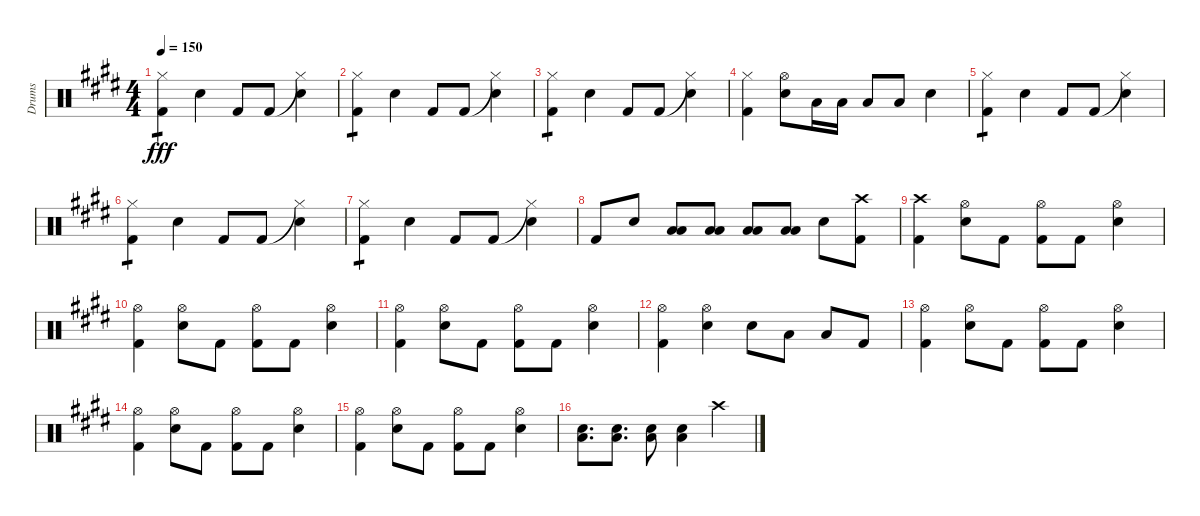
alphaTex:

\track ("Drums" "Drums") {instrument percussion}
\staff {score}
\articulation defaults
\ts (4 4)
\tempo 150
\clef neutral
\ks e
("Hi-Hat (closed)" "Kick (hit) 2").4{tp 1 dy fff} "Snare (hit) 2".4 "Kick (hit) 2".8 "Kick (hit) 2".8 ("Hi-Hat (closed)"{t} "Snare (hit) 2").4 |
("Hi-Hat (closed)" "Kick (hit) 2").4{tp 1} "Snare (hit) 2".4 "Kick (hit) 2".8 "Kick (hit) 2".8 ("Hi-Hat (closed)"{t} "Snare (hit) 2").4 |
("Hi-Hat (closed)" "Kick (hit) 2").4{tp 1} "Snare (hit) 2".4 "Kick (hit) 2".8 "Kick (hit) 2".8 ("Hi-Hat (closed)"{t} "Snare (hit) 2").4 |
("Hi-Hat (closed)" "Kick (hit) 2").4 ("Hi-Hat (open)" "Snare (hit) 2").8 "Low Floor Tom (hit)".16 "Low Floor Tom (hit)".16 "Low Floor Tom (hit)".8 "Low Floor Tom (hit)".8 "Snare (hit) 2".4 |
("Hi-Hat (closed)" "Kick (hit) 2").4{tp 1} "Snare (hit) 2".4 "Kick (hit) 2".8 "Kick (hit) 2".8 ("Hi-Hat (closed)"{t} "Snare (hit) 2").4 |
("Hi-Hat (closed)" "Kick (hit) 2").4{tp 1} "Snare (hit) 2".4 "Kick (hit) 2".8 "Kick (hit) 2".8 ("Hi-Hat (closed)"{t} "Snare (hit) 2").4 |
("Hi-Hat (closed)" "Kick (hit) 2").4{tp 1} "Snare (hit) 2".4 "Kick (hit) 2".8 "Kick (hit) 2".8 ("Hi-Hat (closed)"{t} "Snare (hit) 2").4 |
"Kick (hit) 2".8 "Snare (hit) 2".8 ("Low Floor Tom (hit)" "Low Tom (hit)").8 ("Low Floor Tom (hit)" "Low Tom (hit)").8 ("Low Floor Tom (hit)" "Low Tom (hit)").8 ("Low Floor Tom (hit)" "Low Tom (hit)").8 "Snare (hit) 2".8 ("Crash high (hit)" "Kick (hit) 2").8 |
("Crash high (hit)" "Kick (hit) 2").4 ("Hi-Hat (open)" "Snare (hit) 2").8 "Kick (hit) 2".8 ("Hi-Hat (open)" "Kick (hit) 2").8 "Kick (hit) 2".8 ("Hi-Hat (open)" "Snare (hit) 2").4 |
("Hi-Hat (open)" "Kick (hit) 2").4 ("Hi-Hat (open)" "Snare (hit) 2").8 "Kick (hit) 2".8 ("Hi-Hat (open)" "Kick (hit) 2").8 "Kick (hit) 2".8 ("Hi-Hat (open)" "Snare (hit) 2").4 |
("Hi-Hat (open)" "Kick (hit) 2").4 ("Hi-Hat (open)" "Snare (hit) 2").8 "Kick (hit) 2".8 ("Hi-Hat (open)" "Kick (hit) 2").8 "Kick (hit) 2".8 ("Hi-Hat (open)" "Snare (hit) 2").4 |
("Hi-Hat (open)" "Kick (hit) 2").4 ("Hi-Hat (open)" "Snare (hit) 2").4 "Snare (hit) 2".8 "Low Tom (hit)".8 "Low Floor Tom (hit)".8 "Kick (hit) 2".8 |
("Hi-Hat (open)" "Kick (hit) 2").4 ("Hi-Hat (open)" "Snare (hit) 2").8 "Kick (hit) 2".8 ("Hi-Hat (open)" "Kick (hit) 2").8 "Kick (hit) 2".8 ("Hi-Hat (open)" "Snare (hit) 2").4 |
("Hi-Hat (open)" "Kick (hit) 2").4 ("Hi-Hat (open)" "Snare (hit) 2").8 "Kick (hit) 2".8 ("Hi-Hat (open)" "Kick (hit) 2").8 "Kick (hit) 2".8 ("Hi-Hat (open)" "Snare (hit) 2").4 |
("Hi-Hat (open)" "Kick (hit) 2").4 ("Hi-Hat (open)" "Snare (hit) 2").8 "Kick (hit) 2".8 ("Hi-Hat (open)" "Kick (hit) 2").8 "Kick (hit) 2".8 ("Hi-Hat (open)" "Snare (hit) 2").4 |
("Snare (hit) 2" "Low Floor Tom (hit)").8{d} ("Snare (hit) 2" "Low Floor Tom (hit)").8{d} ("Snare (hit) 2" "Low Floor Tom (hit)").8 ("Snare (hit) 2" "Low Floor Tom (hit)").4 "Crash high (hit)".4
